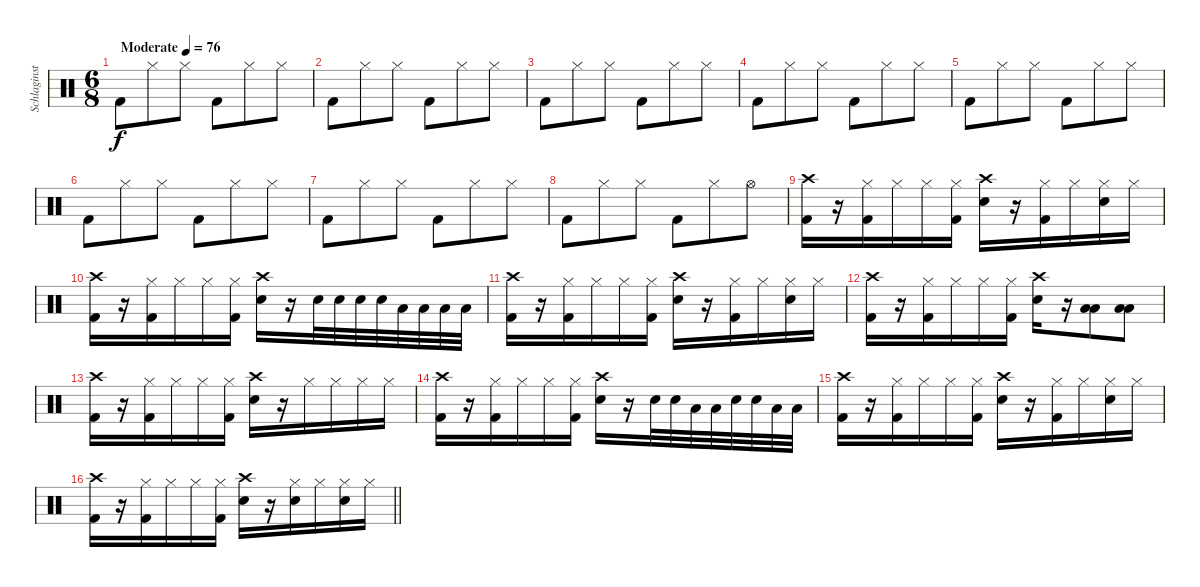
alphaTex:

\track ("Schlaginstrumente - Auswahl" "Schlaginst") {instrument percussion}
\staff {score}
\articulation defaults
\ts (6 8)
\tempo (76 "Moderate")
\clef neutral
\ks c "Kick (hit) 2".8{dy f} "Hi-Hat (closed)".8 "Hi-Hat (closed)".8 "Kick (hit) 2".8 "Hi-Hat (closed)".8 "Hi-Hat (closed)".8
|
"Kick (hit) 2".8 "Hi-Hat (closed)".8 "Hi-Hat (closed)".8 "Kick (hit) 2".8 "Hi-Hat (closed)".8 "Hi-Hat (closed)".8 |
"Kick (hit) 2".8 "Hi-Hat (closed)".8 "Hi-Hat (closed)".8 "Kick (hit) 2".8 "Hi-Hat (closed)".8 "Hi-Hat (closed)".8 |
"Kick (hit) 2".8 "Hi-Hat (closed)".8 "Hi-Hat (closed)".8 "Kick (hit) 2".8 "Hi-Hat (closed)".8 "Hi-Hat (closed)".8 |
"Kick (hit) 2".8 "Hi-Hat (closed)".8 "Hi-Hat (closed)".8 "Kick (hit) 2".8 "Hi-Hat (closed)".8 "Hi-Hat (closed)".8 |
"Kick (hit) 2".8 "Hi-Hat (closed)".8 "Hi-Hat (closed)".8 "Kick (hit) 2".8 "Hi-Hat (closed)".8 "Hi-Hat (closed)".8 |
"Kick (hit) 2".8 "Hi-Hat (closed)".8 "Hi-Hat (closed)".8 "Kick (hit) 2".8 "Hi-Hat (closed)".8 "Hi-Hat (closed)".8 |
"Kick (hit) 2".8 "Hi-Hat (closed)".8 "Hi-Hat (closed)".8 "Kick (hit) 2".8 "Hi-Hat (closed)".8 "Hi-Hat (open)".8 |
("Crash high (hit)" "Kick (hit) 2").16 r.16 ("Hi-Hat (closed)" "Kick (hit) 2").16 "Hi-Hat (closed)".16 "Hi-Hat (closed)".16 ("Hi-Hat (closed)" "Kick (hit) 2").16 ("Crash high (hit)" "Snare (hit) 2").16 r.16 ("Hi-Hat (closed)" "Kick (hit) 2").16 "Hi-Hat (closed)".16 ("Hi-Hat (closed)" "Snare (hit) 2").16 "Hi-Hat (closed)".16 |
("Crash high (hit)" "Kick (hit) 2").16 r.16 ("Hi-Hat (closed)" "Kick (hit) 2").16 "Hi-Hat (closed)".16 "Hi-Hat (closed)".16 ("Hi-Hat (closed)" "Kick (hit) 2").16 ("Crash high (hit)" "Snare (hit) 2").16 r.16 "Snare (hit) 2".32 "Snare (hit) 2".32 "Snare (hit) 2".32 "Snare (hit) 2".32 "Low Tom (hit)".32 "Low Tom (hit)".32 "Low Tom (hit)".32 "Low Tom (hit)".32 |
("Crash high (hit)" "Kick (hit) 2").16 r.16 ("Hi-Hat (closed)" "Kick (hit) 2").16 "Hi-Hat (closed)".16 "Hi-Hat (closed)".16 ("Hi-Hat (closed)" "Kick (hit) 2").16 ("Crash high (hit)" "Snare (hit) 2").16 r.16 ("Hi-Hat (closed)" "Kick (hit) 2").16 "Hi-Hat (closed)".16 ("Hi-Hat (closed)" "Snare (hit) 2").16 "Hi-Hat (closed)".16 |
("Crash high (hit)" "Kick (hit) 2").16 r.16 ("Hi-Hat (closed)" "Kick (hit) 2").16 "Hi-Hat (closed)".16 "Hi-Hat (closed)".16 ("Hi-Hat (closed)" "Kick (hit) 2").16 ("Crash high (hit)" "Snare (hit) 2").16 r.16 ("Low Tom (hit)" "Low Tom (hit)").8{bd 240} ("Low Floor Tom (hit)" "Low Floor Tom (hit)").8{bd 240} |
("Crash high (hit)" "Kick (hit) 2").16 r.16 ("Hi-Hat (closed)" "Kick (hit) 2").16 "Hi-Hat (closed)".16 "Hi-Hat (closed)".16 ("Hi-Hat (closed)" "Kick (hit) 2").16 ("Crash high (hit)" "Snare (hit) 2").16 r.16 "Hi-Hat (closed)".16 "Hi-Hat (closed)".16 "Hi-Hat (closed)".16 "Hi-Hat (closed)".16 |
("Crash high (hit)" "Kick (hit) 2").16 r.16 ("Hi-Hat (closed)" "Kick (hit) 2").16 "Hi-Hat (closed)".16 "Hi-Hat (closed)".16 ("Hi-Hat (closed)" "Kick (hit) 2").16 ("Crash high (hit)" "Snare (hit) 2").16 r.16 "Snare (hit) 2".32 "Snare (hit) 2".32 "Low Tom (hit)".32 "Low Tom (hit)".32 "Snare (hit) 2".32 "Snare (hit) 2".32 "Low Tom (hit)".32 "Low Tom (hit)".32 |
("Crash high (hit)" "Kick (hit) 2").16 r.16 ("Hi-Hat (closed)" "Kick (hit) 2").16 "Hi-Hat (closed)".16 "Hi-Hat (closed)".16 ("Hi-Hat (closed)" "Kick (hit) 2").16 ("Crash high (hit)" "Snare (hit) 2").16 r.16 ("Hi-Hat (closed)" "Kick (hit) 2").16 "Hi-Hat (closed)".16 ("Hi-Hat (closed)" "Snare (hit) 2").16 "Hi-Hat (closed)".16 |
\barLineRight lightlight
("Crash high (hit)" "Kick (hit) 2").16 r.16 ("Hi-Hat (closed)" "Kick (hit) 2").16 "Hi-Hat (closed)".16 "Hi-Hat (closed)".16 ("Hi-Hat (closed)" "Kick (hit) 2").16 ("Crash high (hit)" "Snare (hit) 2").16 r.16 ("Hi-Hat (closed)" "Snare (hit) 2").16 "Hi-Hat (closed)".16 ("Hi-Hat (closed)" "Snare (hit) 2").16 "Hi-Hat (closed)".16
